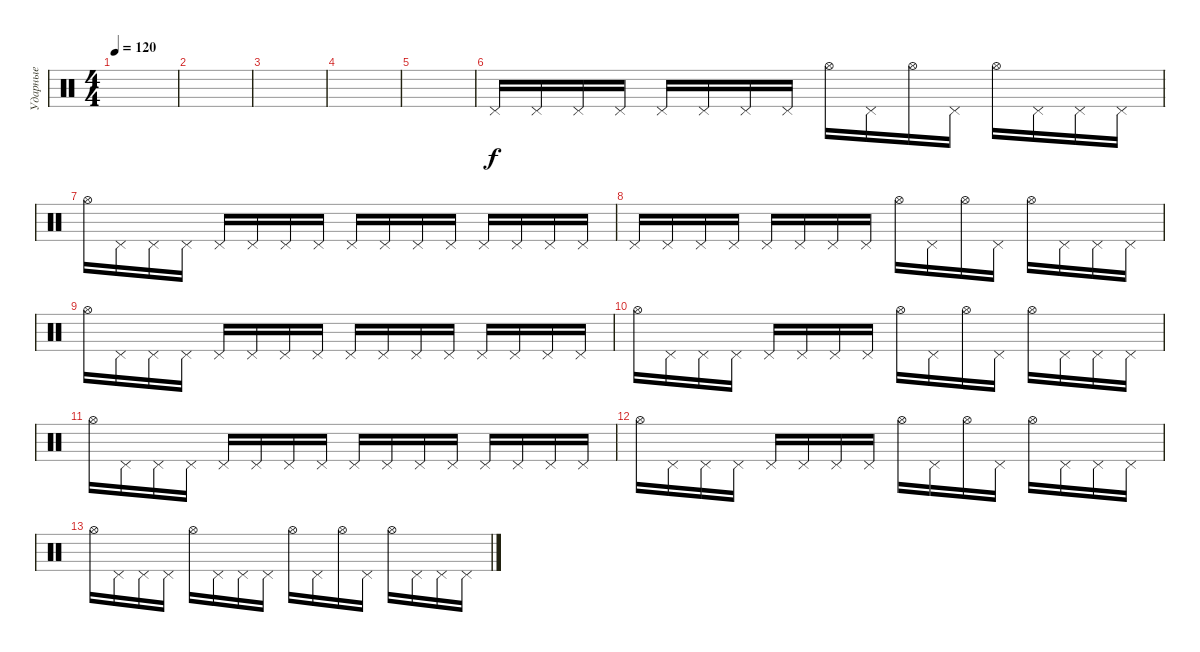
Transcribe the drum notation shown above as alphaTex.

\track ("Ударные" "Ударные") {instrument percussion}
\staff
\articulation defaults
\ts (4 4)
\tempo 120
\clef neutral
\ks c
|
|
|
|
|
"Pedal Hi-Hat (hit)".16 "Pedal Hi-Hat (hit)".16 "Pedal Hi-Hat (hit)".16 "Pedal Hi-Hat (hit)".16 "Pedal Hi-Hat (hit)".16 "Pedal Hi-Hat (hit)".16 "Pedal Hi-Hat (hit)".16 "Pedal Hi-Hat (hit)".16 "Hi-Hat (open)".16 "Pedal Hi-Hat (hit)".16 "Hi-Hat (open)".16 "Pedal Hi-Hat (hit)".16 "Hi-Hat (open)".16 "Pedal Hi-Hat (hit)".16 "Pedal Hi-Hat (hit)".16 "Pedal Hi-Hat (hit)".16 |
"Hi-Hat (open)".16 "Pedal Hi-Hat (hit)".16 "Pedal Hi-Hat (hit)".16 "Pedal Hi-Hat (hit)".16 "Pedal Hi-Hat (hit)".16 "Pedal Hi-Hat (hit)".16 "Pedal Hi-Hat (hit)".16 "Pedal Hi-Hat (hit)".16 "Pedal Hi-Hat (hit)".16 "Pedal Hi-Hat (hit)".16 "Pedal Hi-Hat (hit)".16 "Pedal Hi-Hat (hit)".16 "Pedal Hi-Hat (hit)".16 "Pedal Hi-Hat (hit)".16 "Pedal Hi-Hat (hit)".16 "Pedal Hi-Hat (hit)".16 |
"Pedal Hi-Hat (hit)".16 "Pedal Hi-Hat (hit)".16 "Pedal Hi-Hat (hit)".16 "Pedal Hi-Hat (hit)".16 "Pedal Hi-Hat (hit)".16 "Pedal Hi-Hat (hit)".16 "Pedal Hi-Hat (hit)".16 "Pedal Hi-Hat (hit)".16 "Hi-Hat (open)".16 "Pedal Hi-Hat (hit)".16 "Hi-Hat (open)".16 "Pedal Hi-Hat (hit)".16 "Hi-Hat (open)".16 "Pedal Hi-Hat (hit)".16 "Pedal Hi-Hat (hit)".16 "Pedal Hi-Hat (hit)".16 |
"Hi-Hat (open)".16 "Pedal Hi-Hat (hit)".16 "Pedal Hi-Hat (hit)".16 "Pedal Hi-Hat (hit)".16 "Pedal Hi-Hat (hit)".16 "Pedal Hi-Hat (hit)".16 "Pedal Hi-Hat (hit)".16 "Pedal Hi-Hat (hit)".16 "Pedal Hi-Hat (hit)".16 "Pedal Hi-Hat (hit)".16 "Pedal Hi-Hat (hit)".16 "Pedal Hi-Hat (hit)".16 "Pedal Hi-Hat (hit)".16 "Pedal Hi-Hat (hit)".16 "Pedal Hi-Hat (hit)".16 "Pedal Hi-Hat (hit)".16 |
"Hi-Hat (open)".16 "Pedal Hi-Hat (hit)".16 "Pedal Hi-Hat (hit)".16 "Pedal Hi-Hat (hit)".16 "Pedal Hi-Hat (hit)".16 "Pedal Hi-Hat (hit)".16 "Pedal Hi-Hat (hit)".16 "Pedal Hi-Hat (hit)".16 "Hi-Hat (open)".16 "Pedal Hi-Hat (hit)".16 "Hi-Hat (open)".16 "Pedal Hi-Hat (hit)".16 "Hi-Hat (open)".16 "Pedal Hi-Hat (hit)".16 "Pedal Hi-Hat (hit)".16 "Pedal Hi-Hat (hit)".16 |
"Hi-Hat (open)".16 "Pedal Hi-Hat (hit)".16 "Pedal Hi-Hat (hit)".16 "Pedal Hi-Hat (hit)".16 "Pedal Hi-Hat (hit)".16 "Pedal Hi-Hat (hit)".16 "Pedal Hi-Hat (hit)".16 "Pedal Hi-Hat (hit)".16 "Pedal Hi-Hat (hit)".16 "Pedal Hi-Hat (hit)".16 "Pedal Hi-Hat (hit)".16 "Pedal Hi-Hat (hit)".16 "Pedal Hi-Hat (hit)".16 "Pedal Hi-Hat (hit)".16 "Pedal Hi-Hat (hit)".16 "Pedal Hi-Hat (hit)".16 |
"Hi-Hat (open)".16 "Pedal Hi-Hat (hit)".16 "Pedal Hi-Hat (hit)".16 "Pedal Hi-Hat (hit)".16 "Pedal Hi-Hat (hit)".16 "Pedal Hi-Hat (hit)".16 "Pedal Hi-Hat (hit)".16 "Pedal Hi-Hat (hit)".16 "Hi-Hat (open)".16 "Pedal Hi-Hat (hit)".16 "Hi-Hat (open)".16 "Pedal Hi-Hat (hit)".16 "Hi-Hat (open)".16 "Pedal Hi-Hat (hit)".16 "Pedal Hi-Hat (hit)".16 "Pedal Hi-Hat (hit)".16 |
"Hi-Hat (open)".16 "Pedal Hi-Hat (hit)".16 "Pedal Hi-Hat (hit)".16 "Pedal Hi-Hat (hit)".16 "Hi-Hat (open)".16 "Pedal Hi-Hat (hit)".16 "Pedal Hi-Hat (hit)".16 "Pedal Hi-Hat (hit)".16 "Hi-Hat (open)".16 "Pedal Hi-Hat (hit)".16 "Hi-Hat (open)".16 "Pedal Hi-Hat (hit)".16 "Hi-Hat (open)".16 "Pedal Hi-Hat (hit)".16 "Pedal Hi-Hat (hit)".16 "Pedal Hi-Hat (hit)".16
